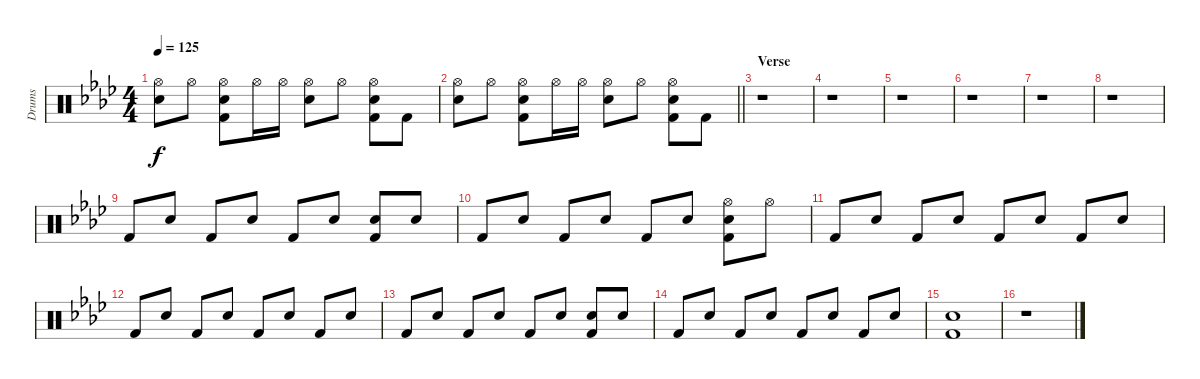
\track ("Drums" "Drums") {instrument percussion}
\staff {score}
\articulation defaults
\ts (4 4)
\tempo 125
\clef neutral
\ks ab
("Hi-Hat (open)" "Electric Snare (hit)").8{dy f} "Hi-Hat (open)".8 ("Hi-Hat (open)" "Electric Snare (hit)" "Kick (hit) 2").8 "Hi-Hat (open)".16 "Hi-Hat (open)".16 ("Hi-Hat (open)" "Electric Snare (hit)").8 "Hi-Hat (open)".8 ("Hi-Hat (open)" "Electric Snare (hit)" "Kick (hit) 2").8 "Kick (hit) 2".8 |
\barLineRight lightlight
("Hi-Hat (open)" "Electric Snare (hit)").8 "Hi-Hat (open)".8 ("Hi-Hat (open)" "Electric Snare (hit)" "Kick (hit) 2").8 "Hi-Hat (open)".16 "Hi-Hat (open)".16 ("Hi-Hat (open)" "Electric Snare (hit)").8 "Hi-Hat (open)".8 ("Hi-Hat (open)" "Electric Snare (hit)" "Kick (hit) 2").8 "Kick (hit) 2".8 |
\section ("" "Verse")
r.1 |
r.1 |
r.1 |
r.1 |
r.1 |
r.1 |
"Kick (hit) 2".8{volume 6} "Electric Snare (hit)".8{volume 12} "Kick (hit) 2".8 "Electric Snare (hit)".8 "Kick (hit) 2".8 "Electric Snare (hit)".8 ("Electric Snare (hit)" "Kick (hit) 2").8 "Electric Snare (hit)".8 |
"Kick (hit) 2".8 "Electric Snare (hit)".8 "Kick (hit) 2".8 "Electric Snare (hit)".8 "Kick (hit) 2".8 "Electric Snare (hit)".8 ("Hi-Hat (open)" "Electric Snare (hit)" "Kick (hit) 2").8 "Hi-Hat (open)".8 |
"Kick (hit) 2".8 "Electric Snare (hit)".8 "Kick (hit) 2".8 "Electric Snare (hit)".8 "Kick (hit) 2".8 "Electric Snare (hit)".8 "Kick (hit) 2".8 "Electric Snare (hit)".8 |
"Kick (hit) 2".8 "Electric Snare (hit)".8 "Kick (hit) 2".8 "Electric Snare (hit)".8 "Kick (hit) 2".8 "Electric Snare (hit)".8 "Kick (hit) 2".8 "Electric Snare (hit)".8 |
"Kick (hit) 2".8{volume 6} "Electric Snare (hit)".8{volume 12} "Kick (hit) 2".8 "Electric Snare (hit)".8 "Kick (hit) 2".8 "Electric Snare (hit)".8 ("Electric Snare (hit)" "Kick (hit) 2").8 "Electric Snare (hit)".8 |
"Kick (hit) 2".8 "Electric Snare (hit)".8 "Kick (hit) 2".8 "Electric Snare (hit)".8 "Kick (hit) 2".8 "Electric Snare (hit)".8 "Kick (hit) 2".8 "Electric Snare (hit)".8 |
("Electric Snare (hit)" "Kick (hit) 2").1 |
r.1
